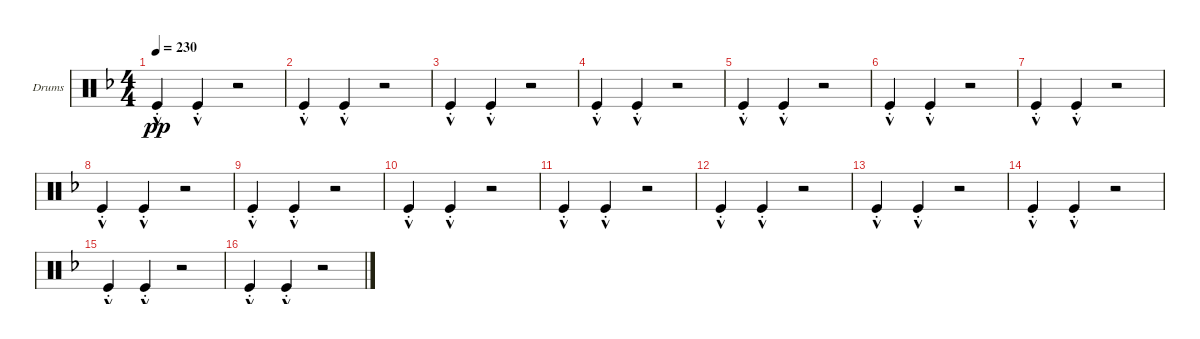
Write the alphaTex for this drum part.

\defaultSystemsLayout 4
\bracketExtendMode groupsimilarinstruments
\firstSystemTrackNameOrientation horizontal
\otherSystemsTrackNameOrientation horizontal
\track ("Drumkit" "Drums") {instrument percussion}
\staff {score}
\articulation defaults
\ts (4 4)
\tempo 230
\clef neutral
\ks dminor "Kick (hit)"{hac st}.4{dy pp} "Kick (hit)"{hac st}.4
r.2 |
"Kick (hit)"{hac st}.4 "Kick (hit)"{hac st}.4 r.2 |
"Kick (hit)"{hac st}.4 "Kick (hit)"{hac st}.4 r.2 |
"Kick (hit)"{hac st}.4 "Kick (hit)"{hac st}.4 r.2 |
"Kick (hit)"{hac st}.4 "Kick (hit)"{hac st}.4 r.2 |
"Kick (hit)"{hac st}.4 "Kick (hit)"{hac st}.4 r.2 |
"Kick (hit)"{hac st}.4 "Kick (hit)"{hac st}.4 r.2 |
"Kick (hit)"{hac st}.4 "Kick (hit)"{hac st}.4 r.2 |
"Kick (hit)"{hac st}.4 "Kick (hit)"{hac st}.4 r.2 |
"Kick (hit)"{hac st}.4 "Kick (hit)"{hac st}.4 r.2 |
"Kick (hit)"{hac st}.4 "Kick (hit)"{hac st}.4 r.2 |
"Kick (hit)"{hac st}.4 "Kick (hit)"{hac st}.4 r.2 |
"Kick (hit)"{hac st}.4 "Kick (hit)"{hac st}.4 r.2 |
"Kick (hit)"{hac st}.4 "Kick (hit)"{hac st}.4 r.2 |
"Kick (hit)"{hac st}.4 "Kick (hit)"{hac st}.4 r.2 |
"Kick (hit)"{hac st}.4 "Kick (hit)"{hac st}.4 r.2
